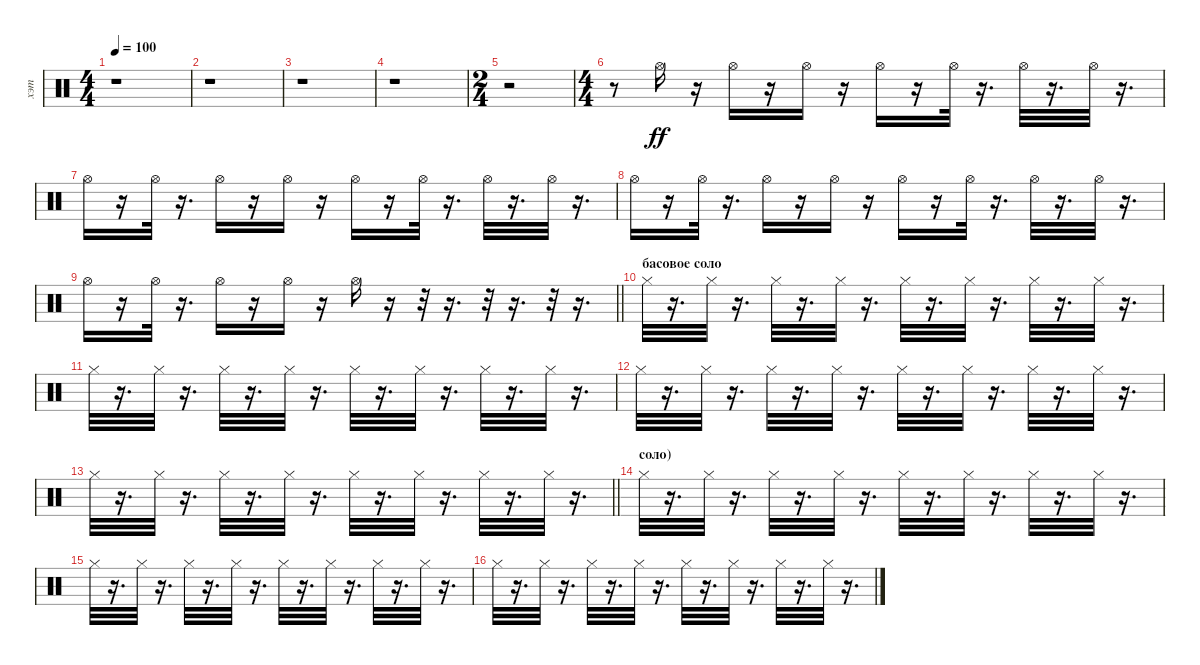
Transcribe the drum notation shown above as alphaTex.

\track ("хэт" "хэт") {instrument percussion}
\staff {score}
\articulation defaults
\ts (4 4)
\tempo 100
\clef neutral
\ks c
r.1{dy ff} |
r.1 |
r.1 |
r.1 |
\ts (2 4)
r.2 |
\ts (4 4)
r.8 "Hi-Hat (open)".16 r.16 "Hi-Hat (open)".16 r.16 "Hi-Hat (open)".16 r.16 "Hi-Hat (open)".16 r.16 "Hi-Hat (open)".32 r.16{d} "Hi-Hat (open)".32 r.16{d} "Hi-Hat (open)".32 r.16{d} |
"Hi-Hat (open)".16 r.16 "Hi-Hat (open)".32 r.16{d} "Hi-Hat (open)".16 r.16 "Hi-Hat (open)".16 r.16 "Hi-Hat (open)".16 r.16 "Hi-Hat (open)".32 r.16{d} "Hi-Hat (open)".32 r.16{d} "Hi-Hat (open)".32 r.16{d} |
"Hi-Hat (open)".16 r.16 "Hi-Hat (open)".32 r.16{d} "Hi-Hat (open)".16 r.16 "Hi-Hat (open)".16 r.16 "Hi-Hat (open)".16 r.16 "Hi-Hat (open)".32 r.16{d} "Hi-Hat (open)".32 r.16{d} "Hi-Hat (open)".32 r.16{d} |
\barLineRight lightlight "Hi-Hat (open)".16
r.16 "Hi-Hat (open)".32 r.16{d} "Hi-Hat (open)".16 r.16 "Hi-Hat (open)".16 r.16 "Hi-Hat (open)".16 r.16 r.32 r.16{d} r.32 r.16{d} r.32 r.16{d} |
\section ("" "басовое соло")
"Hi-Hat (closed)".32 r.16{d} "Hi-Hat (closed)".32 r.16{d} "Hi-Hat (closed)".32 r.16{d} "Hi-Hat (closed)".32 r.16{d} "Hi-Hat (closed)".32 r.16{d} "Hi-Hat (closed)".32 r.16{d} "Hi-Hat (closed)".32 r.16{d} "Hi-Hat (closed)".32 r.16{d} |
"Hi-Hat (closed)".32 r.16{d} "Hi-Hat (closed)".32 r.16{d} "Hi-Hat (closed)".32 r.16{d} "Hi-Hat (closed)".32 r.16{d} "Hi-Hat (closed)".32 r.16{d} "Hi-Hat (closed)".32 r.16{d} "Hi-Hat (closed)".32 r.16{d} "Hi-Hat (closed)".32 r.16{d} |
"Hi-Hat (closed)".32 r.16{d} "Hi-Hat (closed)".32 r.16{d} "Hi-Hat (closed)".32 r.16{d} "Hi-Hat (closed)".32 r.16{d} "Hi-Hat (closed)".32 r.16{d} "Hi-Hat (closed)".32 r.16{d} "Hi-Hat (closed)".32 r.16{d} "Hi-Hat (closed)".32 r.16{d} |
\barLineRight lightlight "Hi-Hat (closed)".32
r.16{d} "Hi-Hat (closed)".32 r.16{d} "Hi-Hat (closed)".32 r.16{d} "Hi-Hat (closed)".32 r.16{d} "Hi-Hat (closed)".32 r.16{d} "Hi-Hat (closed)".32 r.16{d} "Hi-Hat (closed)".32 r.16{d} "Hi-Hat (closed)".32 r.16{d} |
\section ("" "соло)")
"Hi-Hat (closed)".32 r.16{d} "Hi-Hat (closed)".32 r.16{d} "Hi-Hat (closed)".32 r.16{d} "Hi-Hat (closed)".32 r.16{d} "Hi-Hat (closed)".32 r.16{d} "Hi-Hat (closed)".32 r.16{d} "Hi-Hat (closed)".32 r.16{d} "Hi-Hat (closed)".32 r.16{d} |
"Hi-Hat (closed)".32 r.16{d} "Hi-Hat (closed)".32 r.16{d} "Hi-Hat (closed)".32 r.16{d} "Hi-Hat (closed)".32 r.16{d} "Hi-Hat (closed)".32 r.16{d} "Hi-Hat (closed)".32 r.16{d} "Hi-Hat (closed)".32 r.16{d} "Hi-Hat (closed)".32 r.16{d} |
"Hi-Hat (closed)".32 r.16{d} "Hi-Hat (closed)".32 r.16{d} "Hi-Hat (closed)".32 r.16{d} "Hi-Hat (closed)".32 r.16{d} "Hi-Hat (closed)".32 r.16{d} "Hi-Hat (closed)".32 r.16{d} "Hi-Hat (closed)".32 r.16{d} "Hi-Hat (closed)".32 r.16{d}
